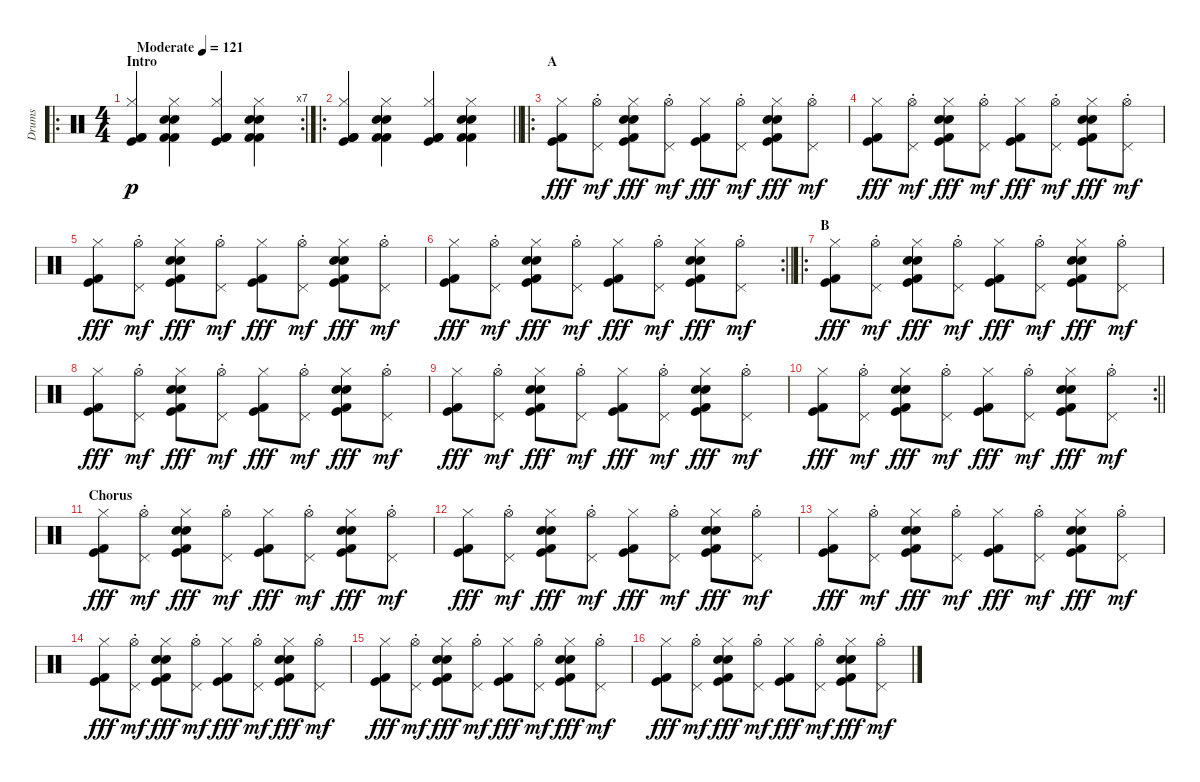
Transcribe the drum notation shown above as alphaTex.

\track ("Drums" "Drums") {instrument percussion}
\staff {score}
\articulation defaults
\ro
\rc 7
\ts (4 4)
\section ("" "Intro")
\tempo (121 "Moderate")
\clef neutral
\ks c
("Kick (hit)" "Hi-Hat (closed)" "Kick (hit) 2" "Kick (hit) 2").4{dy p} ("Snare (hit) 2" "Hi-Hat (closed)" "Hand Clap (hit)" "Kick (hit) 2" "Kick (hit) 2").4 ("Kick (hit)" "Hi-Hat (closed)" "Kick (hit) 2" "Kick (hit) 2").4 ("Snare (hit) 2" "Hi-Hat (closed)" "Hand Clap (hit)" "Kick (hit) 2" "Kick (hit) 2").4 |
\ro
\barLineRight lightlight
("Kick (hit)" "Hi-Hat (closed)" "Kick (hit) 2" "Kick (hit) 2").4 ("Snare (hit) 2" "Hi-Hat (closed)" "Hand Clap (hit)" "Kick (hit) 2" "Kick (hit) 2").4 ("Kick (hit)" "Hi-Hat (closed)" "Kick (hit) 2" "Kick (hit) 2").4 ("Snare (hit) 2" "Hi-Hat (closed)" "Hand Clap (hit)" "Kick (hit) 2" "Kick (hit) 2").4 |
\ro
\section ("" "A")
("Hi-Hat (closed)" "Kick (hit)" "Kick (hit) 2").8{dy fff} ("Pedal Hi-Hat (hit)"{st} "Hi-Hat (open)"{st}).8{dy mf} ("Hi-Hat (closed)" "Hand Clap (hit)" "Snare (hit) 2" "Kick (hit)" "Kick (hit) 2").8{dy fff} ("Pedal Hi-Hat (hit)"{st} "Hi-Hat (open)"{st}).8{dy mf} ("Hi-Hat (closed)" "Kick (hit)" "Kick (hit) 2").8{dy fff} ("Pedal Hi-Hat (hit)"{st} "Hi-Hat (open)"{st}).8{dy mf} ("Hi-Hat (closed)" "Hand Clap (hit)" "Snare (hit) 2" "Kick (hit)" "Kick (hit) 2").8{dy fff} ("Pedal Hi-Hat (hit)"{st} "Hi-Hat (open)"{st}).8{dy mf} |
("Hi-Hat (closed)" "Kick (hit)" "Kick (hit) 2").8{dy fff} ("Pedal Hi-Hat (hit)"{st} "Hi-Hat (open)"{st}).8{dy mf} ("Hi-Hat (closed)" "Hand Clap (hit)" "Snare (hit) 2" "Kick (hit)" "Kick (hit) 2").8{dy fff} ("Pedal Hi-Hat (hit)"{st} "Hi-Hat (open)"{st}).8{dy mf} ("Hi-Hat (closed)" "Kick (hit)" "Kick (hit) 2").8{dy fff} ("Pedal Hi-Hat (hit)"{st} "Hi-Hat (open)"{st}).8{dy mf} ("Hi-Hat (closed)" "Hand Clap (hit)" "Snare (hit) 2" "Kick (hit)" "Kick (hit) 2").8{dy fff} ("Pedal Hi-Hat (hit)"{st} "Hi-Hat (open)"{st}).8{dy mf} |
("Hi-Hat (closed)" "Kick (hit)" "Kick (hit) 2").8{dy fff} ("Pedal Hi-Hat (hit)"{st} "Hi-Hat (open)"{st}).8{dy mf} ("Hi-Hat (closed)" "Hand Clap (hit)" "Snare (hit) 2" "Kick (hit)" "Kick (hit) 2").8{dy fff} ("Pedal Hi-Hat (hit)"{st} "Hi-Hat (open)"{st}).8{dy mf} ("Hi-Hat (closed)" "Kick (hit)" "Kick (hit) 2").8{dy fff} ("Pedal Hi-Hat (hit)"{st} "Hi-Hat (open)"{st}).8{dy mf} ("Hi-Hat (closed)" "Hand Clap (hit)" "Snare (hit) 2" "Kick (hit)" "Kick (hit) 2").8{dy fff} ("Pedal Hi-Hat (hit)"{st} "Hi-Hat (open)"{st}).8{dy mf} |
\rc 2
\barLineRight lightlight
("Hi-Hat (closed)" "Kick (hit)" "Kick (hit) 2").8{dy fff} ("Pedal Hi-Hat (hit)"{st} "Hi-Hat (open)"{st}).8{dy mf} ("Hi-Hat (closed)" "Hand Clap (hit)" "Snare (hit) 2" "Kick (hit)" "Kick (hit) 2").8{dy fff} ("Pedal Hi-Hat (hit)"{st} "Hi-Hat (open)"{st}).8{dy mf} ("Hi-Hat (closed)" "Kick (hit)" "Kick (hit) 2").8{dy fff} ("Pedal Hi-Hat (hit)"{st} "Hi-Hat (open)"{st}).8{dy mf} ("Hi-Hat (closed)" "Hand Clap (hit)" "Snare (hit) 2" "Kick (hit)" "Kick (hit) 2").8{dy fff} ("Pedal Hi-Hat (hit)"{st} "Hi-Hat (open)"{st}).8{dy mf} |
\ro
\section ("" "B")
("Hi-Hat (closed)" "Kick (hit)" "Kick (hit) 2").8{dy fff} ("Pedal Hi-Hat (hit)"{st} "Hi-Hat (open)"{st}).8{dy mf} ("Hi-Hat (closed)" "Hand Clap (hit)" "Snare (hit) 2" "Kick (hit)" "Kick (hit) 2").8{dy fff} ("Pedal Hi-Hat (hit)"{st} "Hi-Hat (open)"{st}).8{dy mf} ("Hi-Hat (closed)" "Kick (hit)" "Kick (hit) 2").8{dy fff} ("Pedal Hi-Hat (hit)"{st} "Hi-Hat (open)"{st}).8{dy mf} ("Hi-Hat (closed)" "Hand Clap (hit)" "Snare (hit) 2" "Kick (hit)" "Kick (hit) 2").8{dy fff} ("Pedal Hi-Hat (hit)"{st} "Hi-Hat (open)"{st}).8{dy mf} |
("Hi-Hat (closed)" "Kick (hit)" "Kick (hit) 2").8{dy fff} ("Pedal Hi-Hat (hit)"{st} "Hi-Hat (open)"{st}).8{dy mf} ("Hi-Hat (closed)" "Hand Clap (hit)" "Snare (hit) 2" "Kick (hit)" "Kick (hit) 2").8{dy fff} ("Pedal Hi-Hat (hit)"{st} "Hi-Hat (open)"{st}).8{dy mf} ("Hi-Hat (closed)" "Kick (hit)" "Kick (hit) 2").8{dy fff} ("Pedal Hi-Hat (hit)"{st} "Hi-Hat (open)"{st}).8{dy mf} ("Hi-Hat (closed)" "Hand Clap (hit)" "Snare (hit) 2" "Kick (hit)" "Kick (hit) 2").8{dy fff} ("Pedal Hi-Hat (hit)"{st} "Hi-Hat (open)"{st}).8{dy mf} |
("Hi-Hat (closed)" "Kick (hit)" "Kick (hit) 2").8{dy fff} ("Pedal Hi-Hat (hit)"{st} "Hi-Hat (open)"{st}).8{dy mf} ("Hi-Hat (closed)" "Hand Clap (hit)" "Snare (hit) 2" "Kick (hit)" "Kick (hit) 2").8{dy fff} ("Pedal Hi-Hat (hit)"{st} "Hi-Hat (open)"{st}).8{dy mf} ("Hi-Hat (closed)" "Kick (hit)" "Kick (hit) 2").8{dy fff} ("Pedal Hi-Hat (hit)"{st} "Hi-Hat (open)"{st}).8{dy mf} ("Hi-Hat (closed)" "Hand Clap (hit)" "Snare (hit) 2" "Kick (hit)" "Kick (hit) 2").8{dy fff} ("Pedal Hi-Hat (hit)"{st} "Hi-Hat (open)"{st}).8{dy mf} |
\rc 2
\barLineRight lightlight
("Hi-Hat (closed)" "Kick (hit)" "Kick (hit) 2").8{dy fff} ("Pedal Hi-Hat (hit)"{st} "Hi-Hat (open)"{st}).8{dy mf} ("Hi-Hat (closed)" "Hand Clap (hit)" "Snare (hit) 2" "Kick (hit)" "Kick (hit) 2").8{dy fff} ("Pedal Hi-Hat (hit)"{st} "Hi-Hat (open)"{st}).8{dy mf} ("Hi-Hat (closed)" "Kick (hit)" "Kick (hit) 2").8{dy fff} ("Pedal Hi-Hat (hit)"{st} "Hi-Hat (open)"{st}).8{dy mf} ("Hi-Hat (closed)" "Hand Clap (hit)" "Snare (hit) 2" "Kick (hit)" "Kick (hit) 2").8{dy fff} ("Pedal Hi-Hat (hit)"{st} "Hi-Hat (open)"{st}).8{dy mf} |
\section ("" "Chorus")
("Hi-Hat (closed)" "Kick (hit)" "Kick (hit) 2").8{dy fff} ("Pedal Hi-Hat (hit)"{st} "Hi-Hat (open)"{st}).8{dy mf} ("Hi-Hat (closed)" "Hand Clap (hit)" "Snare (hit) 2" "Kick (hit)" "Kick (hit) 2").8{dy fff} ("Pedal Hi-Hat (hit)"{st} "Hi-Hat (open)"{st}).8{dy mf} ("Hi-Hat (closed)" "Kick (hit)" "Kick (hit) 2").8{dy fff} ("Pedal Hi-Hat (hit)"{st} "Hi-Hat (open)"{st}).8{dy mf} ("Hi-Hat (closed)" "Hand Clap (hit)" "Snare (hit) 2" "Kick (hit)" "Kick (hit) 2").8{dy fff} ("Pedal Hi-Hat (hit)"{st} "Hi-Hat (open)"{st}).8{dy mf} |
("Hi-Hat (closed)" "Kick (hit)" "Kick (hit) 2").8{dy fff} ("Pedal Hi-Hat (hit)"{st} "Hi-Hat (open)"{st}).8{dy mf} ("Hi-Hat (closed)" "Hand Clap (hit)" "Snare (hit) 2" "Kick (hit)" "Kick (hit) 2").8{dy fff} ("Pedal Hi-Hat (hit)"{st} "Hi-Hat (open)"{st}).8{dy mf} ("Hi-Hat (closed)" "Kick (hit)" "Kick (hit) 2").8{dy fff} ("Pedal Hi-Hat (hit)"{st} "Hi-Hat (open)"{st}).8{dy mf} ("Hi-Hat (closed)" "Hand Clap (hit)" "Snare (hit) 2" "Kick (hit)" "Kick (hit) 2").8{dy fff} ("Pedal Hi-Hat (hit)"{st} "Hi-Hat (open)"{st}).8{dy mf} |
("Hi-Hat (closed)" "Kick (hit)" "Kick (hit) 2").8{dy fff} ("Pedal Hi-Hat (hit)"{st} "Hi-Hat (open)"{st}).8{dy mf} ("Hi-Hat (closed)" "Hand Clap (hit)" "Snare (hit) 2" "Kick (hit)" "Kick (hit) 2").8{dy fff} ("Pedal Hi-Hat (hit)"{st} "Hi-Hat (open)"{st}).8{dy mf} ("Hi-Hat (closed)" "Kick (hit)" "Kick (hit) 2").8{dy fff} ("Pedal Hi-Hat (hit)"{st} "Hi-Hat (open)"{st}).8{dy mf} ("Hi-Hat (closed)" "Hand Clap (hit)" "Snare (hit) 2" "Kick (hit)" "Kick (hit) 2").8{dy fff} ("Pedal Hi-Hat (hit)"{st} "Hi-Hat (open)"{st}).8{dy mf} |
("Hi-Hat (closed)" "Kick (hit)" "Kick (hit) 2").8{dy fff} ("Pedal Hi-Hat (hit)"{st} "Hi-Hat (open)"{st}).8{dy mf} ("Hi-Hat (closed)" "Hand Clap (hit)" "Snare (hit) 2" "Kick (hit)" "Kick (hit) 2").8{dy fff} ("Pedal Hi-Hat (hit)"{st} "Hi-Hat (open)"{st}).8{dy mf} ("Hi-Hat (closed)" "Kick (hit)" "Kick (hit) 2").8{dy fff} ("Pedal Hi-Hat (hit)"{st} "Hi-Hat (open)"{st}).8{dy mf} ("Hi-Hat (closed)" "Hand Clap (hit)" "Snare (hit) 2" "Kick (hit)" "Kick (hit) 2").8{dy fff} ("Pedal Hi-Hat (hit)"{st} "Hi-Hat (open)"{st}).8{dy mf} |
("Hi-Hat (closed)" "Kick (hit)" "Kick (hit) 2").8{dy fff} ("Pedal Hi-Hat (hit)"{st} "Hi-Hat (open)"{st}).8{dy mf} ("Hi-Hat (closed)" "Hand Clap (hit)" "Snare (hit) 2" "Kick (hit)" "Kick (hit) 2").8{dy fff} ("Pedal Hi-Hat (hit)"{st} "Hi-Hat (open)"{st}).8{dy mf} ("Hi-Hat (closed)" "Kick (hit)" "Kick (hit) 2").8{dy fff} ("Pedal Hi-Hat (hit)"{st} "Hi-Hat (open)"{st}).8{dy mf} ("Hi-Hat (closed)" "Hand Clap (hit)" "Snare (hit) 2" "Kick (hit)" "Kick (hit) 2").8{dy fff} ("Pedal Hi-Hat (hit)"{st} "Hi-Hat (open)"{st}).8{dy mf} |
("Hi-Hat (closed)" "Kick (hit)" "Kick (hit) 2").8{dy fff} ("Pedal Hi-Hat (hit)"{st} "Hi-Hat (open)"{st}).8{dy mf} ("Hi-Hat (closed)" "Hand Clap (hit)" "Snare (hit) 2" "Kick (hit)" "Kick (hit) 2").8{dy fff} ("Pedal Hi-Hat (hit)"{st} "Hi-Hat (open)"{st}).8{dy mf} ("Hi-Hat (closed)" "Kick (hit)" "Kick (hit) 2").8{dy fff} ("Pedal Hi-Hat (hit)"{st} "Hi-Hat (open)"{st}).8{dy mf} ("Hi-Hat (closed)" "Hand Clap (hit)" "Snare (hit) 2" "Kick (hit)" "Kick (hit) 2").8{dy fff} ("Pedal Hi-Hat (hit)"{st} "Hi-Hat (open)"{st}).8{dy mf}
